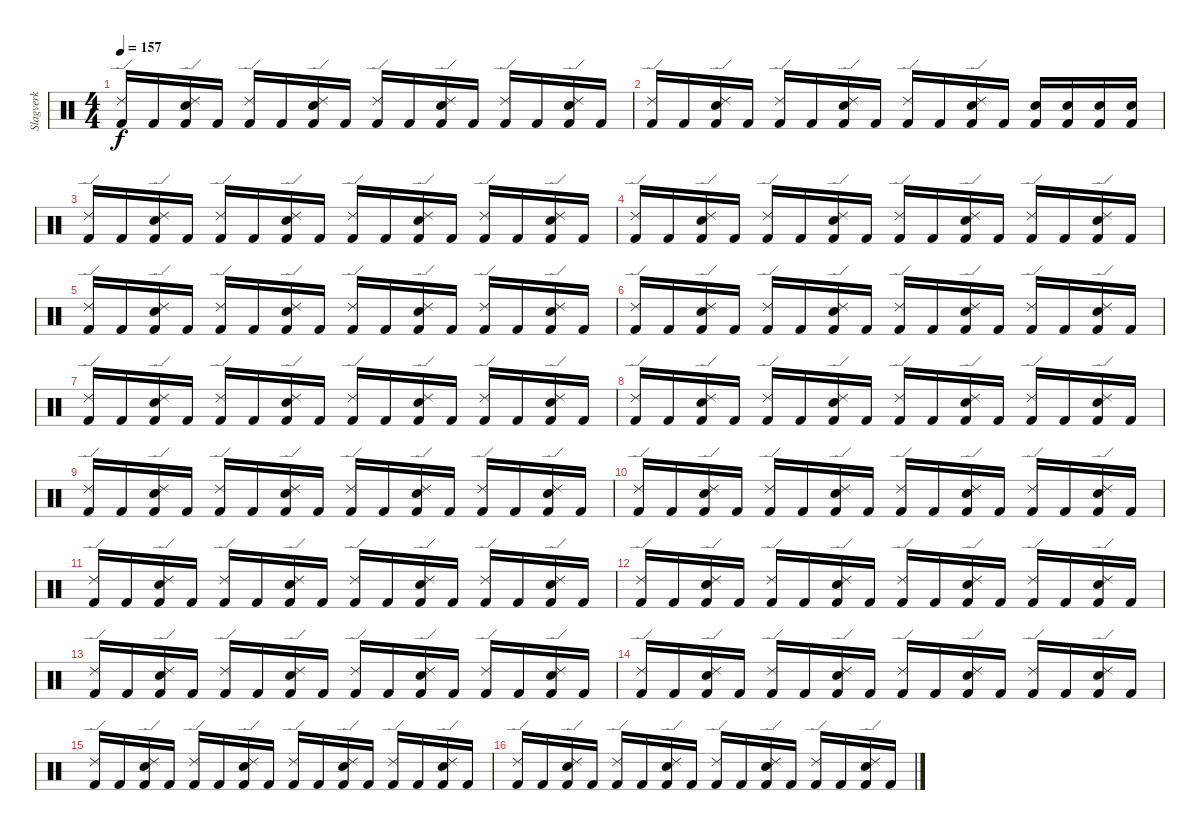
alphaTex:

\track ("Slagverk" "Slagverk") {instrument percussion}
\staff {score}
\articulation defaults
\ts (4 4)
\tempo 157
\clef neutral
\ks c
("Ride (edge) 2" "Kick (hit) 2").16{dy f} "Kick (hit) 2".16 ("Snare (hit) 2" "Ride (edge) 2" "Kick (hit) 2").16 "Kick (hit) 2".16 ("Ride (edge) 2" "Kick (hit) 2").16 "Kick (hit) 2".16 ("Snare (hit) 2" "Ride (edge) 2" "Kick (hit) 2").16 "Kick (hit) 2".16 ("Ride (edge) 2" "Kick (hit) 2").16 "Kick (hit) 2".16 ("Snare (hit) 2" "Ride (edge) 2" "Kick (hit) 2").16 "Kick (hit) 2".16 ("Ride (edge) 2" "Kick (hit) 2").16 "Kick (hit) 2".16 ("Snare (hit) 2" "Ride (edge) 2" "Kick (hit) 2").16 "Kick (hit) 2".16 |
("Ride (edge) 2" "Kick (hit) 2").16 "Kick (hit) 2".16 ("Snare (hit) 2" "Ride (edge) 2" "Kick (hit) 2").16 "Kick (hit) 2".16 ("Ride (edge) 2" "Kick (hit) 2").16 "Kick (hit) 2".16 ("Snare (hit) 2" "Ride (edge) 2" "Kick (hit) 2").16 "Kick (hit) 2".16 ("Ride (edge) 2" "Kick (hit) 2").16 "Kick (hit) 2".16 ("Ride (edge) 2" "Snare (hit) 2" "Kick (hit) 2").16 "Kick (hit) 2".16 ("Snare (hit) 2" "Kick (hit) 2").16 ("Snare (hit) 2" "Kick (hit) 2").16 ("Snare (hit) 2" "Kick (hit) 2").16 ("Snare (hit) 2" "Kick (hit) 2").16 |
("Ride (edge) 2" "Kick (hit) 2").16 "Kick (hit) 2".16 ("Snare (hit) 2" "Ride (edge) 2" "Kick (hit) 2").16 "Kick (hit) 2".16 ("Ride (edge) 2" "Kick (hit) 2").16 "Kick (hit) 2".16 ("Snare (hit) 2" "Ride (edge) 2" "Kick (hit) 2").16 "Kick (hit) 2".16 ("Ride (edge) 2" "Kick (hit) 2").16 "Kick (hit) 2".16 ("Snare (hit) 2" "Ride (edge) 2" "Kick (hit) 2").16 "Kick (hit) 2".16 ("Ride (edge) 2" "Kick (hit) 2").16 "Kick (hit) 2".16 ("Snare (hit) 2" "Ride (edge) 2" "Kick (hit) 2").16 "Kick (hit) 2".16 |
("Ride (edge) 2" "Kick (hit) 2").16 "Kick (hit) 2".16 ("Snare (hit) 2" "Ride (edge) 2" "Kick (hit) 2").16 "Kick (hit) 2".16 ("Ride (edge) 2" "Kick (hit) 2").16 "Kick (hit) 2".16 ("Snare (hit) 2" "Ride (edge) 2" "Kick (hit) 2").16 "Kick (hit) 2".16 ("Ride (edge) 2" "Kick (hit) 2").16 "Kick (hit) 2".16 ("Snare (hit) 2" "Ride (edge) 2" "Kick (hit) 2").16 "Kick (hit) 2".16 ("Ride (edge) 2" "Kick (hit) 2").16 "Kick (hit) 2".16 ("Snare (hit) 2" "Ride (edge) 2" "Kick (hit) 2").16 "Kick (hit) 2".16 |
("Ride (edge) 2" "Kick (hit) 2").16 "Kick (hit) 2".16 ("Snare (hit) 2" "Ride (edge) 2" "Kick (hit) 2").16 "Kick (hit) 2".16 ("Ride (edge) 2" "Kick (hit) 2").16 "Kick (hit) 2".16 ("Snare (hit) 2" "Ride (edge) 2" "Kick (hit) 2").16 "Kick (hit) 2".16 ("Ride (edge) 2" "Kick (hit) 2").16 "Kick (hit) 2".16 ("Snare (hit) 2" "Ride (edge) 2" "Kick (hit) 2").16 "Kick (hit) 2".16 ("Ride (edge) 2" "Kick (hit) 2").16 "Kick (hit) 2".16 ("Snare (hit) 2" "Ride (edge) 2" "Kick (hit) 2").16 "Kick (hit) 2".16 |
("Ride (edge) 2" "Kick (hit) 2").16 "Kick (hit) 2".16 ("Snare (hit) 2" "Ride (edge) 2" "Kick (hit) 2").16 "Kick (hit) 2".16 ("Ride (edge) 2" "Kick (hit) 2").16 "Kick (hit) 2".16 ("Snare (hit) 2" "Ride (edge) 2" "Kick (hit) 2").16 "Kick (hit) 2".16 ("Ride (edge) 2" "Kick (hit) 2").16 "Kick (hit) 2".16 ("Snare (hit) 2" "Ride (edge) 2" "Kick (hit) 2").16 "Kick (hit) 2".16 ("Ride (edge) 2" "Kick (hit) 2").16 "Kick (hit) 2".16 ("Snare (hit) 2" "Ride (edge) 2" "Kick (hit) 2").16 "Kick (hit) 2".16 |
("Ride (edge) 2" "Kick (hit) 2").16 "Kick (hit) 2".16 ("Snare (hit) 2" "Ride (edge) 2" "Kick (hit) 2").16 "Kick (hit) 2".16 ("Ride (edge) 2" "Kick (hit) 2").16 "Kick (hit) 2".16 ("Snare (hit) 2" "Ride (edge) 2" "Kick (hit) 2").16 "Kick (hit) 2".16 ("Ride (edge) 2" "Kick (hit) 2").16 "Kick (hit) 2".16 ("Snare (hit) 2" "Ride (edge) 2" "Kick (hit) 2").16 "Kick (hit) 2".16 ("Ride (edge) 2" "Kick (hit) 2").16 "Kick (hit) 2".16 ("Snare (hit) 2" "Ride (edge) 2" "Kick (hit) 2").16 "Kick (hit) 2".16 |
("Ride (edge) 2" "Kick (hit) 2").16 "Kick (hit) 2".16 ("Snare (hit) 2" "Ride (edge) 2" "Kick (hit) 2").16 "Kick (hit) 2".16 ("Ride (edge) 2" "Kick (hit) 2").16 "Kick (hit) 2".16 ("Snare (hit) 2" "Ride (edge) 2" "Kick (hit) 2").16 "Kick (hit) 2".16 ("Ride (edge) 2" "Kick (hit) 2").16 "Kick (hit) 2".16 ("Snare (hit) 2" "Ride (edge) 2" "Kick (hit) 2").16 "Kick (hit) 2".16 ("Ride (edge) 2" "Kick (hit) 2").16 "Kick (hit) 2".16 ("Snare (hit) 2" "Ride (edge) 2" "Kick (hit) 2").16 "Kick (hit) 2".16 |
("Ride (edge) 2" "Kick (hit) 2").16 "Kick (hit) 2".16 ("Snare (hit) 2" "Ride (edge) 2" "Kick (hit) 2").16 "Kick (hit) 2".16 ("Ride (edge) 2" "Kick (hit) 2").16 "Kick (hit) 2".16 ("Snare (hit) 2" "Ride (edge) 2" "Kick (hit) 2").16 "Kick (hit) 2".16 ("Ride (edge) 2" "Kick (hit) 2").16 "Kick (hit) 2".16 ("Snare (hit) 2" "Ride (edge) 2" "Kick (hit) 2").16 "Kick (hit) 2".16 ("Ride (edge) 2" "Kick (hit) 2").16 "Kick (hit) 2".16 ("Snare (hit) 2" "Ride (edge) 2" "Kick (hit) 2").16 "Kick (hit) 2".16 |
("Ride (edge) 2" "Kick (hit) 2").16 "Kick (hit) 2".16 ("Snare (hit) 2" "Ride (edge) 2" "Kick (hit) 2").16 "Kick (hit) 2".16 ("Ride (edge) 2" "Kick (hit) 2").16 "Kick (hit) 2".16 ("Snare (hit) 2" "Ride (edge) 2" "Kick (hit) 2").16 "Kick (hit) 2".16 ("Ride (edge) 2" "Kick (hit) 2").16 "Kick (hit) 2".16 ("Snare (hit) 2" "Ride (edge) 2" "Kick (hit) 2").16 "Kick (hit) 2".16 ("Ride (edge) 2" "Kick (hit) 2").16 "Kick (hit) 2".16 ("Snare (hit) 2" "Ride (edge) 2" "Kick (hit) 2").16 "Kick (hit) 2".16 |
("Ride (edge) 2" "Kick (hit) 2").16 "Kick (hit) 2".16 ("Snare (hit) 2" "Ride (edge) 2" "Kick (hit) 2").16 "Kick (hit) 2".16 ("Ride (edge) 2" "Kick (hit) 2").16 "Kick (hit) 2".16 ("Snare (hit) 2" "Ride (edge) 2" "Kick (hit) 2").16 "Kick (hit) 2".16 ("Ride (edge) 2" "Kick (hit) 2").16 "Kick (hit) 2".16 ("Snare (hit) 2" "Ride (edge) 2" "Kick (hit) 2").16 "Kick (hit) 2".16 ("Ride (edge) 2" "Kick (hit) 2").16 "Kick (hit) 2".16 ("Snare (hit) 2" "Ride (edge) 2" "Kick (hit) 2").16 "Kick (hit) 2".16 |
("Ride (edge) 2" "Kick (hit) 2").16 "Kick (hit) 2".16 ("Snare (hit) 2" "Ride (edge) 2" "Kick (hit) 2").16 "Kick (hit) 2".16 ("Ride (edge) 2" "Kick (hit) 2").16 "Kick (hit) 2".16 ("Snare (hit) 2" "Ride (edge) 2" "Kick (hit) 2").16 "Kick (hit) 2".16 ("Ride (edge) 2" "Kick (hit) 2").16 "Kick (hit) 2".16 ("Snare (hit) 2" "Ride (edge) 2" "Kick (hit) 2").16 "Kick (hit) 2".16 ("Ride (edge) 2" "Kick (hit) 2").16 "Kick (hit) 2".16 ("Snare (hit) 2" "Ride (edge) 2" "Kick (hit) 2").16 "Kick (hit) 2".16 |
("Ride (edge) 2" "Kick (hit) 2").16 "Kick (hit) 2".16 ("Snare (hit) 2" "Ride (edge) 2" "Kick (hit) 2").16 "Kick (hit) 2".16 ("Ride (edge) 2" "Kick (hit) 2").16 "Kick (hit) 2".16 ("Snare (hit) 2" "Ride (edge) 2" "Kick (hit) 2").16 "Kick (hit) 2".16 ("Ride (edge) 2" "Kick (hit) 2").16 "Kick (hit) 2".16 ("Snare (hit) 2" "Ride (edge) 2" "Kick (hit) 2").16 "Kick (hit) 2".16 ("Ride (edge) 2" "Kick (hit) 2").16 "Kick (hit) 2".16 ("Snare (hit) 2" "Ride (edge) 2" "Kick (hit) 2").16 "Kick (hit) 2".16 |
("Ride (edge) 2" "Kick (hit) 2").16 "Kick (hit) 2".16 ("Snare (hit) 2" "Ride (edge) 2" "Kick (hit) 2").16 "Kick (hit) 2".16 ("Ride (edge) 2" "Kick (hit) 2").16 "Kick (hit) 2".16 ("Snare (hit) 2" "Ride (edge) 2" "Kick (hit) 2").16 "Kick (hit) 2".16 ("Ride (edge) 2" "Kick (hit) 2").16 "Kick (hit) 2".16 ("Snare (hit) 2" "Ride (edge) 2" "Kick (hit) 2").16 "Kick (hit) 2".16 ("Ride (edge) 2" "Kick (hit) 2").16 "Kick (hit) 2".16 ("Snare (hit) 2" "Ride (edge) 2" "Kick (hit) 2").16 "Kick (hit) 2".16 |
("Ride (edge) 2" "Kick (hit) 2").16 "Kick (hit) 2".16 ("Snare (hit) 2" "Ride (edge) 2" "Kick (hit) 2").16 "Kick (hit) 2".16 ("Ride (edge) 2" "Kick (hit) 2").16 "Kick (hit) 2".16 ("Snare (hit) 2" "Ride (edge) 2" "Kick (hit) 2").16 "Kick (hit) 2".16 ("Ride (edge) 2" "Kick (hit) 2").16 "Kick (hit) 2".16 ("Snare (hit) 2" "Ride (edge) 2" "Kick (hit) 2").16 "Kick (hit) 2".16 ("Ride (edge) 2" "Kick (hit) 2").16 "Kick (hit) 2".16 ("Snare (hit) 2" "Ride (edge) 2" "Kick (hit) 2").16 "Kick (hit) 2".16 |
("Ride (edge) 2" "Kick (hit) 2").16 "Kick (hit) 2".16 ("Snare (hit) 2" "Ride (edge) 2" "Kick (hit) 2").16 "Kick (hit) 2".16 ("Ride (edge) 2" "Kick (hit) 2").16 "Kick (hit) 2".16 ("Snare (hit) 2" "Ride (edge) 2" "Kick (hit) 2").16 "Kick (hit) 2".16 ("Ride (edge) 2" "Kick (hit) 2").16 "Kick (hit) 2".16 ("Snare (hit) 2" "Ride (edge) 2" "Kick (hit) 2").16 "Kick (hit) 2".16 ("Ride (edge) 2" "Kick (hit) 2").16 "Kick (hit) 2".16 ("Snare (hit) 2" "Ride (edge) 2" "Kick (hit) 2").16 "Kick (hit) 2".16
